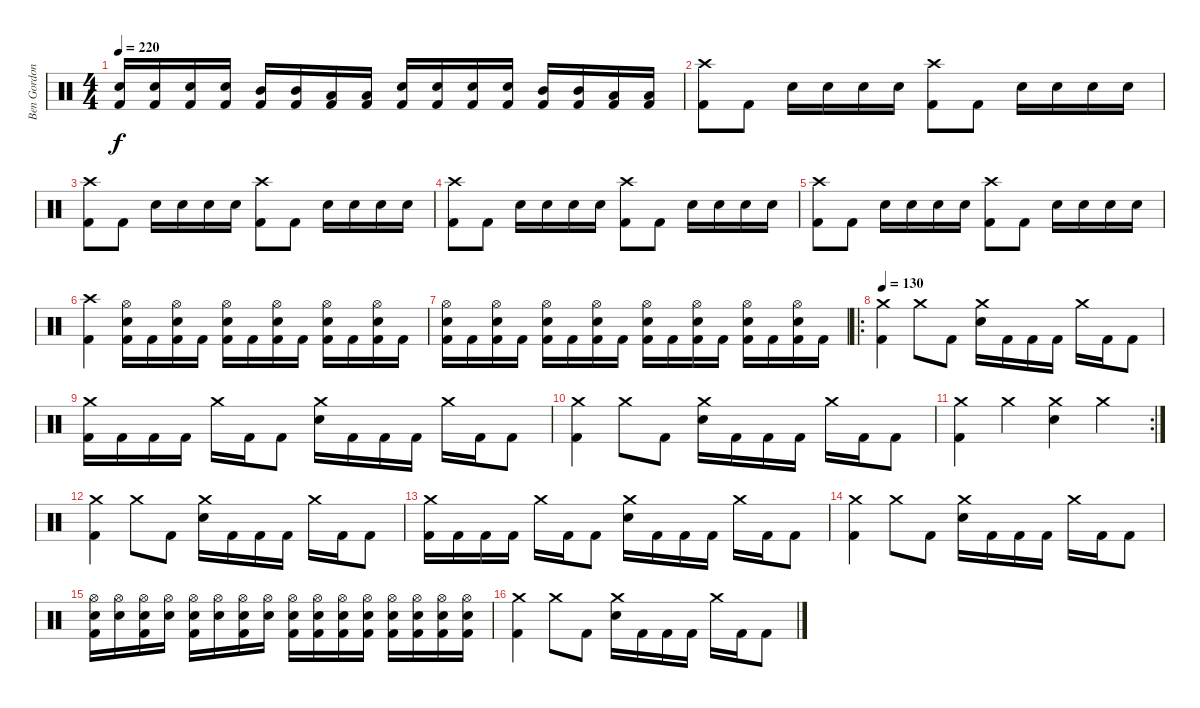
\track ("Ben Gordon" "Ben Gordon") {instrument percussion}
\staff {score}
\articulation defaults
\ts (4 4)
\tempo 220
\clef neutral
\ks c
("Snare (hit) 2" "Kick (hit) 2").16{dy f} ("Snare (hit) 2" "Kick (hit) 2").16 ("Snare (hit) 2" "Kick (hit) 2").16 ("Snare (hit) 2" "Kick (hit) 2").16 ("Mid Tom (hit)" "Kick (hit) 2").16 ("Mid Tom (hit)" "Kick (hit) 2").16 ("Low Tom (hit)" "Kick (hit) 2").16 ("Low Tom (hit)" "Kick (hit) 2").16 ("Snare (hit) 2" "Kick (hit) 2").16 ("Snare (hit) 2" "Kick (hit) 2").16 ("Snare (hit) 2" "Kick (hit) 2").16 ("Snare (hit) 2" "Kick (hit) 2").16 ("Mid Tom (hit)" "Kick (hit) 2").16 ("Mid Tom (hit)" "Kick (hit) 2").16 ("Low Tom (hit)" "Kick (hit) 2").16 ("Low Tom (hit)" "Kick (hit) 2").16 |
("Crash high (hit)" "Kick (hit) 2").8 "Kick (hit) 2".8 "Snare (hit) 2".16 "Snare (hit) 2".16 "Snare (hit) 2".16 "Snare (hit) 2".16 ("Crash high (hit)" "Kick (hit) 2").8 "Kick (hit) 2".8 "Snare (hit) 2".16 "Snare (hit) 2".16 "Snare (hit) 2".16 "Snare (hit) 2".16 |
("Crash high (hit)" "Kick (hit) 2").8 "Kick (hit) 2".8 "Snare (hit) 2".16 "Snare (hit) 2".16 "Snare (hit) 2".16 "Snare (hit) 2".16 ("Crash high (hit)" "Kick (hit) 2").8 "Kick (hit) 2".8 "Snare (hit) 2".16 "Snare (hit) 2".16 "Snare (hit) 2".16 "Snare (hit) 2".16 |
("Crash high (hit)" "Kick (hit) 2").8 "Kick (hit) 2".8 "Snare (hit) 2".16 "Snare (hit) 2".16 "Snare (hit) 2".16 "Snare (hit) 2".16 ("Crash high (hit)" "Kick (hit) 2").8 "Kick (hit) 2".8 "Snare (hit) 2".16 "Snare (hit) 2".16 "Snare (hit) 2".16 "Snare (hit) 2".16 |
("Crash high (hit)" "Kick (hit) 2").8 "Kick (hit) 2".8 "Snare (hit) 2".16 "Snare (hit) 2".16 "Snare (hit) 2".16 "Snare (hit) 2".16 ("Crash high (hit)" "Kick (hit) 2").8 "Kick (hit) 2".8 "Snare (hit) 2".16 "Snare (hit) 2".16 "Snare (hit) 2".16 "Snare (hit) 2".16 |
("Crash high (hit)" "Kick (hit) 2").4 ("Hi-Hat (open)" "Snare (hit) 2" "Kick (hit) 2").16 "Kick (hit) 2".16 ("Hi-Hat (open)" "Snare (hit) 2" "Kick (hit) 2").16 "Kick (hit) 2".16 ("Hi-Hat (open)" "Snare (hit) 2" "Kick (hit) 2").16 "Kick (hit) 2".16 ("Hi-Hat (open)" "Snare (hit) 2" "Kick (hit) 2").16 "Kick (hit) 2".16 ("Hi-Hat (open)" "Snare (hit) 2" "Kick (hit) 2").16 "Kick (hit) 2".16 ("Hi-Hat (open)" "Snare (hit) 2" "Kick (hit) 2").16 "Kick (hit) 2".16 |
("Hi-Hat (open)" "Snare (hit) 2" "Kick (hit) 2").16 "Kick (hit) 2".16 ("Hi-Hat (open)" "Snare (hit) 2" "Kick (hit) 2").16 "Kick (hit) 2".16 ("Hi-Hat (open)" "Snare (hit) 2" "Kick (hit) 2").16 "Kick (hit) 2".16 ("Hi-Hat (open)" "Snare (hit) 2" "Kick (hit) 2").16 "Kick (hit) 2".16 ("Hi-Hat (open)" "Snare (hit) 2" "Kick (hit) 2").16 "Kick (hit) 2".16 ("Hi-Hat (open)" "Snare (hit) 2" "Kick (hit) 2").16 "Kick (hit) 2".16 ("Hi-Hat (open)" "Snare (hit) 2" "Kick (hit) 2").16 "Kick (hit) 2".16 ("Hi-Hat (open)" "Snare (hit) 2" "Kick (hit) 2").16 "Kick (hit) 2".16 |
\ro
\tempo 130
("Crash medium (hit)" "Kick (hit) 2").4 "Crash medium (hit)".8 "Kick (hit) 2".8 ("Crash medium (hit)" "Snare (hit) 2").16 "Kick (hit) 2".16 "Kick (hit) 2".16 "Kick (hit) 2".16 "Crash medium (hit)".16 "Kick (hit) 2".16 "Kick (hit) 2".8 |
("Crash medium (hit)" "Kick (hit) 2").16 "Kick (hit) 2".16 "Kick (hit) 2".16 "Kick (hit) 2".16 "Crash medium (hit)".16 "Kick (hit) 2".16 "Kick (hit) 2".8 ("Crash medium (hit)" "Snare (hit) 2").16 "Kick (hit) 2".16 "Kick (hit) 2".16 "Kick (hit) 2".16 "Crash medium (hit)".16 "Kick (hit) 2".16 "Kick (hit) 2".8 |
("Crash medium (hit)" "Kick (hit) 2").4 "Crash medium (hit)".8 "Kick (hit) 2".8 ("Crash medium (hit)" "Snare (hit) 2").16 "Kick (hit) 2".16 "Kick (hit) 2".16 "Kick (hit) 2".16 "Crash medium (hit)".16 "Kick (hit) 2".16 "Kick (hit) 2".8 |
\rc 2
("Crash medium (hit)" "Kick (hit) 2").4 "Crash medium (hit)".4 ("Crash medium (hit)" "Snare (hit) 2").4 "Crash medium (hit)".4 |
("Crash medium (hit)" "Kick (hit) 2").4 "Crash medium (hit)".8 "Kick (hit) 2".8 ("Crash medium (hit)" "Snare (hit) 2").16 "Kick (hit) 2".16 "Kick (hit) 2".16 "Kick (hit) 2".16 "Crash medium (hit)".16 "Kick (hit) 2".16 "Kick (hit) 2".8 |
("Crash medium (hit)" "Kick (hit) 2").16 "Kick (hit) 2".16 "Kick (hit) 2".16 "Kick (hit) 2".16 "Crash medium (hit)".16 "Kick (hit) 2".16 "Kick (hit) 2".8 ("Crash medium (hit)" "Snare (hit) 2").16 "Kick (hit) 2".16 "Kick (hit) 2".16 "Kick (hit) 2".16 "Crash medium (hit)".16 "Kick (hit) 2".16 "Kick (hit) 2".8 |
("Crash medium (hit)" "Kick (hit) 2").4 "Crash medium (hit)".8 "Kick (hit) 2".8 ("Crash medium (hit)" "Snare (hit) 2").16 "Kick (hit) 2".16 "Kick (hit) 2".16 "Kick (hit) 2".16 "Crash medium (hit)".16 "Kick (hit) 2".16 "Kick (hit) 2".8 |
("Hi-Hat (open)" "Snare (hit) 2" "Kick (hit) 2").16 ("Hi-Hat (open)" "Snare (hit) 2").16 ("Hi-Hat (open)" "Snare (hit) 2" "Kick (hit) 2").16 ("Hi-Hat (open)" "Snare (hit) 2").16 ("Hi-Hat (open)" "Snare (hit) 2" "Kick (hit) 2").16 ("Hi-Hat (open)" "Snare (hit) 2").16 ("Hi-Hat (open)" "Snare (hit) 2" "Kick (hit) 2").16 ("Hi-Hat (open)" "Snare (hit) 2").16 ("Hi-Hat (open)" "Snare (hit) 2" "Kick (hit) 2").16 ("Hi-Hat (open)" "Snare (hit) 2" "Kick (hit) 2").16 ("Hi-Hat (open)" "Snare (hit) 2" "Kick (hit) 2").16 ("Hi-Hat (open)" "Snare (hit) 2" "Kick (hit) 2").16 ("Hi-Hat (open)" "Snare (hit) 2" "Kick (hit) 2").16 ("Hi-Hat (open)" "Snare (hit) 2" "Kick (hit) 2").16 ("Hi-Hat (open)" "Snare (hit) 2" "Kick (hit) 2").16 ("Hi-Hat (open)" "Snare (hit) 2" "Kick (hit) 2").16 |
("Crash medium (hit)" "Kick (hit) 2").4 "Crash medium (hit)".8 "Kick (hit) 2".8 ("Crash medium (hit)" "Snare (hit) 2").16 "Kick (hit) 2".16 "Kick (hit) 2".16 "Kick (hit) 2".16 "Crash medium (hit)".16 "Kick (hit) 2".16 "Kick (hit) 2".8
